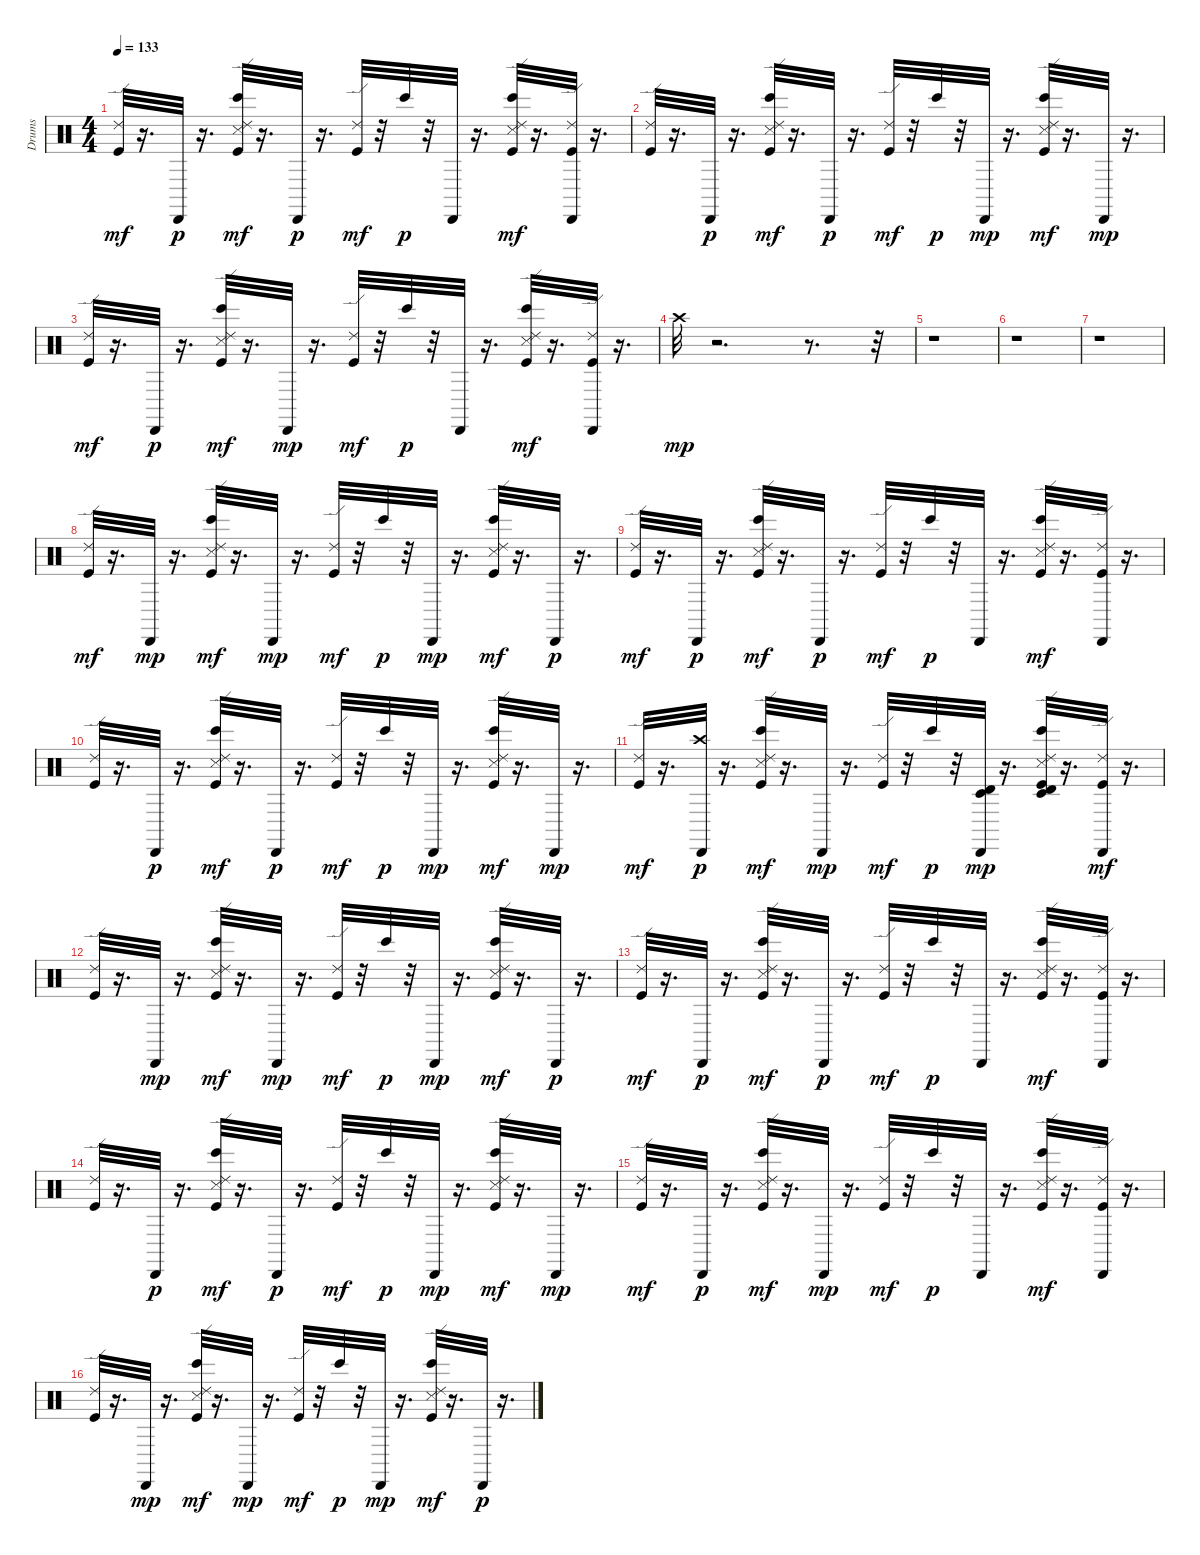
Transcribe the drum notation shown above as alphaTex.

\track ("Drums" "Drums") {instrument percussion}
\staff {score}
\articulation defaults
\ts (4 4)
\tempo 133
\clef neutral
\ks c
("Kick (hit)" "Ride (edge) 2").32{dy mf} r.16{d} "Cabasa (hit)".32{dy p} r.16{d} ("Kick (hit)" "Snare (side stick) 3" "Ride (edge) 2" "Bongo High (hit)").32{dy mf} r.16{d} "Cabasa (hit)".32{dy p} r.16{d} ("Kick (hit)" "Ride (edge) 2").32{dy mf} r.32 "Bongo High (hit)".32{dy p} r.32 "Cabasa (hit)".32 r.16{d} ("Kick (hit)" "Snare (side stick) 3" "Ride (edge) 2" "Bongo High (hit)").32{dy mf} r.16{d} ("Cabasa (hit)" "Kick (hit)" "Ride (edge) 2").32 r.16{d} |
("Kick (hit)" "Ride (edge) 2").32 r.16{d} "Cabasa (hit)".32{dy p} r.16{d} ("Kick (hit)" "Snare (side stick) 3" "Ride (edge) 2" "Bongo High (hit)").32{dy mf} r.16{d} "Cabasa (hit)".32{dy p} r.16{d} ("Kick (hit)" "Ride (edge) 2").32{dy mf} r.32 "Bongo High (hit)".32{dy p} r.32 "Cabasa (hit)".32{dy mp} r.16{d} ("Kick (hit)" "Snare (side stick) 3" "Ride (edge) 2" "Bongo High (hit)").32{dy mf} r.16{d} "Cabasa (hit)".32{dy mp} r.16{d} |
("Kick (hit)" "Ride (edge) 2").32{dy mf} r.16{d} "Cabasa (hit)".32{dy p} r.16{d} ("Kick (hit)" "Snare (side stick) 3" "Ride (edge) 2" "Bongo High (hit)").32{dy mf} r.16{d} "Cabasa (hit)".32{dy mp} r.16{d} ("Kick (hit)" "Ride (edge) 2").32{dy mf} r.32 "Bongo High (hit)".32{dy p} r.32 "Cabasa (hit)".32 r.16{d} ("Kick (hit)" "Snare (side stick) 3" "Ride (edge) 2" "Bongo High (hit)").32{dy mf} r.16{d} ("Cabasa (hit)" "Kick (hit)" "Ride (edge) 2").32 r.16{d} |
"Crash high (hit)".32{dy mp} r.2{d} r.8{d} r.32 |
r.1 |
r.1 |
r.1 |
("Kick (hit)" "Ride (edge) 2").32{dy mf} r.16{d} "Cabasa (hit)".32{dy mp} r.16{d} ("Kick (hit)" "Snare (side stick) 3" "Ride (edge) 2" "Bongo High (hit)").32{dy mf} r.16{d} "Cabasa (hit)".32{dy mp} r.16{d} ("Kick (hit)" "Ride (edge) 2").32{dy mf} r.32 "Bongo High (hit)".32{dy p} r.32 "Cabasa (hit)".32{dy mp} r.16{d} ("Kick (hit)" "Snare (side stick) 3" "Ride (edge) 2" "Bongo High (hit)").32{dy mf} r.16{d} "Cabasa (hit)".32{dy p} r.16{d} |
("Kick (hit)" "Ride (edge) 2").32{dy mf} r.16{d} "Cabasa (hit)".32{dy p} r.16{d} ("Kick (hit)" "Snare (side stick) 3" "Ride (edge) 2" "Bongo High (hit)").32{dy mf} r.16{d} "Cabasa (hit)".32{dy p} r.16{d} ("Kick (hit)" "Ride (edge) 2").32{dy mf} r.32 "Bongo High (hit)".32{dy p} r.32 "Cabasa (hit)".32 r.16{d} ("Kick (hit)" "Snare (side stick) 3" "Ride (edge) 2" "Bongo High (hit)").32{dy mf} r.16{d} ("Cabasa (hit)" "Kick (hit)" "Ride (edge) 2").32 r.16{d} |
("Kick (hit)" "Ride (edge) 2").32 r.16{d} "Cabasa (hit)".32{dy p} r.16{d} ("Kick (hit)" "Snare (side stick) 3" "Ride (edge) 2" "Bongo High (hit)").32{dy mf} r.16{d} "Cabasa (hit)".32{dy p} r.16{d} ("Kick (hit)" "Ride (edge) 2").32{dy mf} r.32 "Bongo High (hit)".32{dy p} r.32 "Cabasa (hit)".32{dy mp} r.16{d} ("Kick (hit)" "Snare (side stick) 3" "Ride (edge) 2" "Bongo High (hit)").32{dy mf} r.16{d} "Cabasa (hit)".32{dy mp} r.16{d} |
("Kick (hit)" "Ride (edge) 2").32{dy mf} r.16{d} ("Crash high (hit)" "Cabasa (hit)").32{dy p} r.16{d} ("Kick (hit)" "Snare (side stick) 3" "Ride (edge) 2" "Bongo High (hit)").32{dy mf} r.16{d} "Cabasa (hit)".32{dy mp} r.16{d} ("Kick (hit)" "Ride (edge) 2").32{dy mf} r.32 "Bongo High (hit)".32{dy p} r.32 ("Cabasa (hit)" "Timbale high (hit)" "Timbale low (hit)").32{dy mp} r.16{d} ("Kick (hit)" "Snare (side stick) 3" "Ride (edge) 2" "Bongo High (hit)" "Timbale high (hit)" "Timbale low (hit)").32 r.16{d} ("Cabasa (hit)" "Kick (hit)" "Ride (edge) 2").32{dy mf} r.16{d} |
("Kick (hit)" "Ride (edge) 2").32 r.16{d} "Cabasa (hit)".32{dy mp} r.16{d} ("Kick (hit)" "Snare (side stick) 3" "Ride (edge) 2" "Bongo High (hit)").32{dy mf} r.16{d} "Cabasa (hit)".32{dy mp} r.16{d} ("Kick (hit)" "Ride (edge) 2").32{dy mf} r.32 "Bongo High (hit)".32{dy p} r.32 "Cabasa (hit)".32{dy mp} r.16{d} ("Kick (hit)" "Snare (side stick) 3" "Ride (edge) 2" "Bongo High (hit)").32{dy mf} r.16{d} "Cabasa (hit)".32{dy p} r.16{d} |
("Kick (hit)" "Ride (edge) 2").32{dy mf} r.16{d} "Cabasa (hit)".32{dy p} r.16{d} ("Kick (hit)" "Snare (side stick) 3" "Ride (edge) 2" "Bongo High (hit)").32{dy mf} r.16{d} "Cabasa (hit)".32{dy p} r.16{d} ("Kick (hit)" "Ride (edge) 2").32{dy mf} r.32 "Bongo High (hit)".32{dy p} r.32 "Cabasa (hit)".32 r.16{d} ("Kick (hit)" "Snare (side stick) 3" "Ride (edge) 2" "Bongo High (hit)").32{dy mf} r.16{d} ("Cabasa (hit)" "Kick (hit)" "Ride (edge) 2").32 r.16{d} |
("Kick (hit)" "Ride (edge) 2").32 r.16{d} "Cabasa (hit)".32{dy p} r.16{d} ("Kick (hit)" "Snare (side stick) 3" "Ride (edge) 2" "Bongo High (hit)").32{dy mf} r.16{d} "Cabasa (hit)".32{dy p} r.16{d} ("Kick (hit)" "Ride (edge) 2").32{dy mf} r.32 "Bongo High (hit)".32{dy p} r.32 "Cabasa (hit)".32{dy mp} r.16{d} ("Kick (hit)" "Snare (side stick) 3" "Ride (edge) 2" "Bongo High (hit)").32{dy mf} r.16{d} "Cabasa (hit)".32{dy mp} r.16{d} |
("Kick (hit)" "Ride (edge) 2").32{dy mf} r.16{d} "Cabasa (hit)".32{dy p} r.16{d} ("Kick (hit)" "Snare (side stick) 3" "Ride (edge) 2" "Bongo High (hit)").32{dy mf} r.16{d} "Cabasa (hit)".32{dy mp} r.16{d} ("Kick (hit)" "Ride (edge) 2").32{dy mf} r.32 "Bongo High (hit)".32{dy p} r.32 "Cabasa (hit)".32 r.16{d} ("Kick (hit)" "Snare (side stick) 3" "Ride (edge) 2" "Bongo High (hit)").32{dy mf} r.16{d} ("Cabasa (hit)" "Kick (hit)" "Ride (edge) 2").32 r.16{d} |
("Kick (hit)" "Ride (edge) 2").32 r.16{d} "Cabasa (hit)".32{dy mp} r.16{d} ("Kick (hit)" "Snare (side stick) 3" "Ride (edge) 2" "Bongo High (hit)").32{dy mf} r.16{d} "Cabasa (hit)".32{dy mp} r.16{d} ("Kick (hit)" "Ride (edge) 2").32{dy mf} r.32 "Bongo High (hit)".32{dy p} r.32 "Cabasa (hit)".32{dy mp} r.16{d} ("Kick (hit)" "Snare (side stick) 3" "Ride (edge) 2" "Bongo High (hit)").32{dy mf} r.16{d} "Cabasa (hit)".32{dy p} r.16{d}
